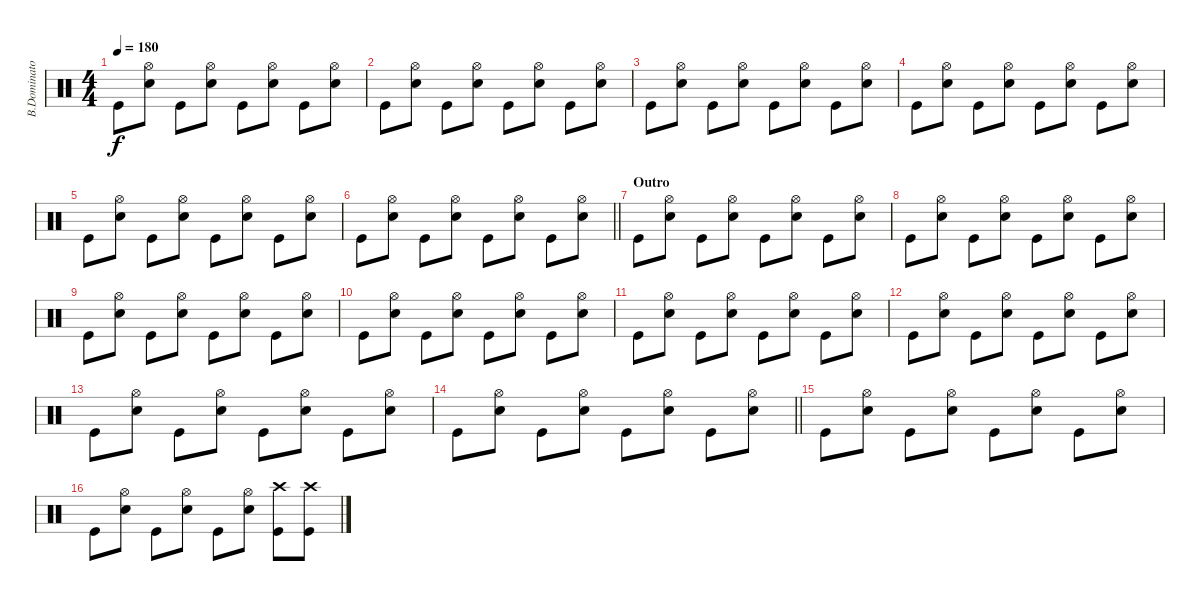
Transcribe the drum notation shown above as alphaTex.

\track ("B.Dominator" "B.Dominato") {instrument percussion}
\staff {score}
\articulation defaults
\ts (4 4)
\tempo 180
\clef neutral
\ks c "Kick (hit)".8{dy f}
("Hi-Hat (open)" "Snare (hit) 2").8 "Kick (hit)".8 ("Hi-Hat (open)" "Snare (hit) 2").8 "Kick (hit)".8 ("Hi-Hat (open)" "Snare (hit) 2").8 "Kick (hit)".8 ("Hi-Hat (open)" "Snare (hit) 2").8 |
"Kick (hit)".8 ("Hi-Hat (open)" "Snare (hit) 2").8 "Kick (hit)".8 ("Hi-Hat (open)" "Snare (hit) 2").8 "Kick (hit)".8 ("Hi-Hat (open)" "Snare (hit) 2").8 "Kick (hit)".8 ("Hi-Hat (open)" "Snare (hit) 2").8 |
"Kick (hit)".8 ("Hi-Hat (open)" "Snare (hit) 2").8 "Kick (hit)".8 ("Hi-Hat (open)" "Snare (hit) 2").8 "Kick (hit)".8 ("Hi-Hat (open)" "Snare (hit) 2").8 "Kick (hit)".8 ("Hi-Hat (open)" "Snare (hit) 2").8 |
"Kick (hit)".8 ("Hi-Hat (open)" "Snare (hit) 2").8 "Kick (hit)".8 ("Hi-Hat (open)" "Snare (hit) 2").8 "Kick (hit)".8 ("Hi-Hat (open)" "Snare (hit) 2").8 "Kick (hit)".8 ("Hi-Hat (open)" "Snare (hit) 2").8 |
"Kick (hit)".8 ("Hi-Hat (open)" "Snare (hit) 2").8 "Kick (hit)".8 ("Hi-Hat (open)" "Snare (hit) 2").8 "Kick (hit)".8 ("Hi-Hat (open)" "Snare (hit) 2").8 "Kick (hit)".8 ("Hi-Hat (open)" "Snare (hit) 2").8 |
\barLineRight lightlight "Kick (hit)".8
("Hi-Hat (open)" "Snare (hit) 2").8 "Kick (hit)".8 ("Hi-Hat (open)" "Snare (hit) 2").8 "Kick (hit)".8 ("Hi-Hat (open)" "Snare (hit) 2").8 "Kick (hit)".8 ("Hi-Hat (open)" "Snare (hit) 2").8 |
\section ("" "Outro")
"Kick (hit)".8 ("Hi-Hat (open)" "Snare (hit) 2").8 "Kick (hit)".8 ("Hi-Hat (open)" "Snare (hit) 2").8 "Kick (hit)".8 ("Hi-Hat (open)" "Snare (hit) 2").8 "Kick (hit)".8 ("Hi-Hat (open)" "Snare (hit) 2").8 |
"Kick (hit)".8 ("Hi-Hat (open)" "Snare (hit) 2").8 "Kick (hit)".8 ("Hi-Hat (open)" "Snare (hit) 2").8 "Kick (hit)".8 ("Hi-Hat (open)" "Snare (hit) 2").8 "Kick (hit)".8 ("Hi-Hat (open)" "Snare (hit) 2").8 |
"Kick (hit)".8 ("Hi-Hat (open)" "Snare (hit) 2").8 "Kick (hit)".8 ("Hi-Hat (open)" "Snare (hit) 2").8 "Kick (hit)".8 ("Hi-Hat (open)" "Snare (hit) 2").8 "Kick (hit)".8 ("Hi-Hat (open)" "Snare (hit) 2").8 |
"Kick (hit)".8 ("Hi-Hat (open)" "Snare (hit) 2").8 "Kick (hit)".8 ("Hi-Hat (open)" "Snare (hit) 2").8 "Kick (hit)".8 ("Hi-Hat (open)" "Snare (hit) 2").8 "Kick (hit)".8 ("Hi-Hat (open)" "Snare (hit) 2").8 |
"Kick (hit)".8 ("Hi-Hat (open)" "Snare (hit) 2").8 "Kick (hit)".8 ("Hi-Hat (open)" "Snare (hit) 2").8 "Kick (hit)".8 ("Hi-Hat (open)" "Snare (hit) 2").8 "Kick (hit)".8 ("Hi-Hat (open)" "Snare (hit) 2").8 |
"Kick (hit)".8 ("Hi-Hat (open)" "Snare (hit) 2").8 "Kick (hit)".8 ("Hi-Hat (open)" "Snare (hit) 2").8 "Kick (hit)".8 ("Hi-Hat (open)" "Snare (hit) 2").8 "Kick (hit)".8 ("Hi-Hat (open)" "Snare (hit) 2").8 |
"Kick (hit)".8 ("Hi-Hat (open)" "Snare (hit) 2").8 "Kick (hit)".8 ("Hi-Hat (open)" "Snare (hit) 2").8 "Kick (hit)".8 ("Hi-Hat (open)" "Snare (hit) 2").8 "Kick (hit)".8 ("Hi-Hat (open)" "Snare (hit) 2").8 |
\barLineRight lightlight "Kick (hit)".8
("Hi-Hat (open)" "Snare (hit) 2").8 "Kick (hit)".8 ("Hi-Hat (open)" "Snare (hit) 2").8 "Kick (hit)".8 ("Hi-Hat (open)" "Snare (hit) 2").8 "Kick (hit)".8 ("Hi-Hat (open)" "Snare (hit) 2").8 |
"Kick (hit)".8 ("Hi-Hat (open)" "Snare (hit) 2").8 "Kick (hit)".8 ("Hi-Hat (open)" "Snare (hit) 2").8 "Kick (hit)".8 ("Hi-Hat (open)" "Snare (hit) 2").8 "Kick (hit)".8 ("Hi-Hat (open)" "Snare (hit) 2").8 |
"Kick (hit)".8 ("Hi-Hat (open)" "Snare (hit) 2").8 "Kick (hit)".8 ("Hi-Hat (open)" "Snare (hit) 2").8 "Kick (hit)".8 ("Hi-Hat (open)" "Snare (hit) 2").8 ("Crash high (hit)" "Kick (hit)").8 ("Crash high (hit)" "Kick (hit)").8
